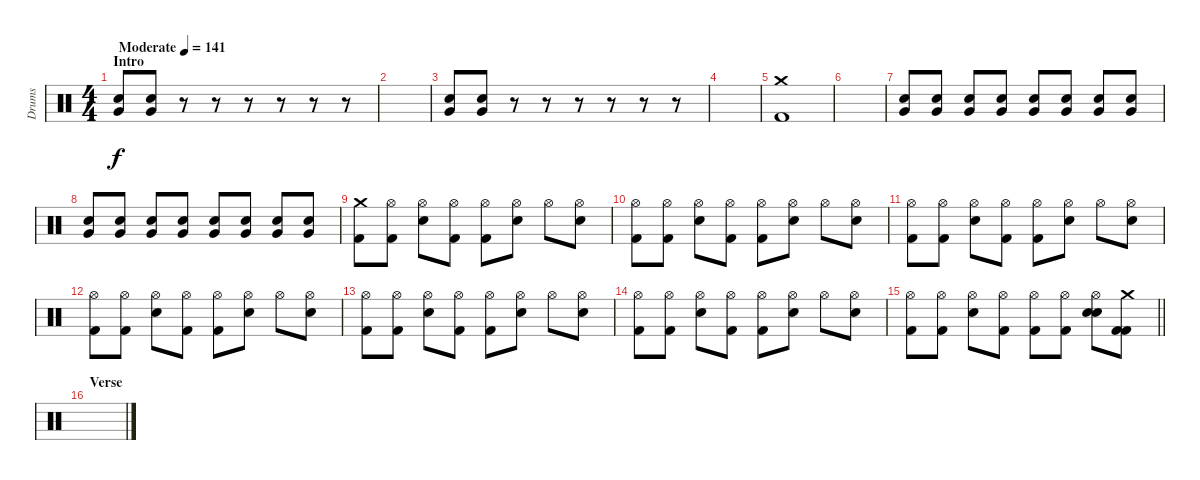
\track ("Drums" "Drums") {instrument percussion}
\staff {score}
\articulation defaults
\ts (4 4)
\section ("" "Intro")
\tempo (141 "Moderate")
\clef neutral
\ks c
("Electric Snare (hit)" "Very Low Tom (hit)").8{dy f} ("Electric Snare (hit)" "Very Low Tom (hit)").8 r.8 r.8 r.8 r.8 r.8 r.8 |
|
("Electric Snare (hit)" "Very Low Tom (hit)").8 ("Electric Snare (hit)" "Very Low Tom (hit)").8 r.8 r.8 r.8 r.8 r.8 r.8 |
|
("Crash medium (hit)" "Kick (hit) 2").1 |
|
("Electric Snare (hit)" "Very Low Tom (hit)").8{volume 13} ("Electric Snare (hit)" "Very Low Tom (hit)").8 ("Electric Snare (hit)" "Very Low Tom (hit)").8 ("Electric Snare (hit)" "Very Low Tom (hit)").8 ("Electric Snare (hit)" "Very Low Tom (hit)").8 ("Electric Snare (hit)" "Very Low Tom (hit)").8 ("Electric Snare (hit)" "Very Low Tom (hit)").8 ("Electric Snare (hit)" "Very Low Tom (hit)").8 |
("Electric Snare (hit)" "Very Low Tom (hit)").8 ("Electric Snare (hit)" "Very Low Tom (hit)").8 ("Electric Snare (hit)" "Very Low Tom (hit)").8 ("Electric Snare (hit)" "Very Low Tom (hit)").8 ("Electric Snare (hit)" "Very Low Tom (hit)").8 ("Electric Snare (hit)" "Very Low Tom (hit)").8 ("Electric Snare (hit)" "Very Low Tom (hit)").8 ("Electric Snare (hit)" "Very Low Tom (hit)").8 |
("Crash medium (hit)" "Kick (hit) 2").8 ("Hi-Hat (open)" "Kick (hit) 2").8 ("Hi-Hat (open)" "Electric Snare (hit)").8 ("Hi-Hat (open)" "Kick (hit) 2").8 ("Hi-Hat (open)" "Kick (hit) 2").8 ("Hi-Hat (open)" "Electric Snare (hit)").8 "Hi-Hat (open)".8 ("Hi-Hat (open)" "Electric Snare (hit)").8 |
("Hi-Hat (open)" "Kick (hit) 2").8 ("Hi-Hat (open)" "Kick (hit) 2").8 ("Hi-Hat (open)" "Electric Snare (hit)").8 ("Hi-Hat (open)" "Kick (hit) 2").8 ("Hi-Hat (open)" "Kick (hit) 2").8 ("Hi-Hat (open)" "Electric Snare (hit)").8 "Hi-Hat (open)".8 ("Hi-Hat (open)" "Electric Snare (hit)").8 |
("Hi-Hat (open)" "Kick (hit) 2").8 ("Hi-Hat (open)" "Kick (hit) 2").8 ("Hi-Hat (open)" "Electric Snare (hit)").8 ("Hi-Hat (open)" "Kick (hit) 2").8 ("Hi-Hat (open)" "Kick (hit) 2").8 ("Hi-Hat (open)" "Electric Snare (hit)").8 "Hi-Hat (open)".8 ("Hi-Hat (open)" "Electric Snare (hit)").8 |
("Hi-Hat (open)" "Kick (hit) 2").8 ("Hi-Hat (open)" "Kick (hit) 2").8 ("Hi-Hat (open)" "Electric Snare (hit)").8 ("Hi-Hat (open)" "Kick (hit) 2").8 ("Hi-Hat (open)" "Kick (hit) 2").8 ("Hi-Hat (open)" "Electric Snare (hit)").8 "Hi-Hat (open)".8 ("Hi-Hat (open)" "Electric Snare (hit)").8 |
("Hi-Hat (open)" "Kick (hit) 2").8 ("Hi-Hat (open)" "Kick (hit) 2").8 ("Hi-Hat (open)" "Electric Snare (hit)").8 ("Hi-Hat (open)" "Kick (hit) 2").8 ("Hi-Hat (open)" "Kick (hit) 2").8 ("Hi-Hat (open)" "Electric Snare (hit)").8 "Hi-Hat (open)".8 ("Hi-Hat (open)" "Electric Snare (hit)").8 |
("Hi-Hat (open)" "Kick (hit) 2").8 ("Hi-Hat (open)" "Kick (hit) 2").8 ("Hi-Hat (open)" "Electric Snare (hit)").8 ("Hi-Hat (open)" "Kick (hit) 2").8 ("Hi-Hat (open)" "Kick (hit) 2").8 ("Hi-Hat (open)" "Electric Snare (hit)").8 "Hi-Hat (open)".8 ("Hi-Hat (open)" "Electric Snare (hit)").8 |
\barLineRight lightlight
("Hi-Hat (open)" "Kick (hit) 2").8 ("Hi-Hat (open)" "Kick (hit) 2").8 ("Hi-Hat (open)" "Electric Snare (hit)").8 ("Hi-Hat (open)" "Kick (hit) 2").8 ("Hi-Hat (open)" "Kick (hit) 2").8 ("Hi-Hat (open)" "Kick (hit) 2").8 ("Hi-Hat (open)" "Electric Snare (hit)" "Electric Snare (hit)").8 ("Crash medium (hit)" "Kick (hit) 2" "Kick (hit) 2").8 |
\section ("" "Verse")
